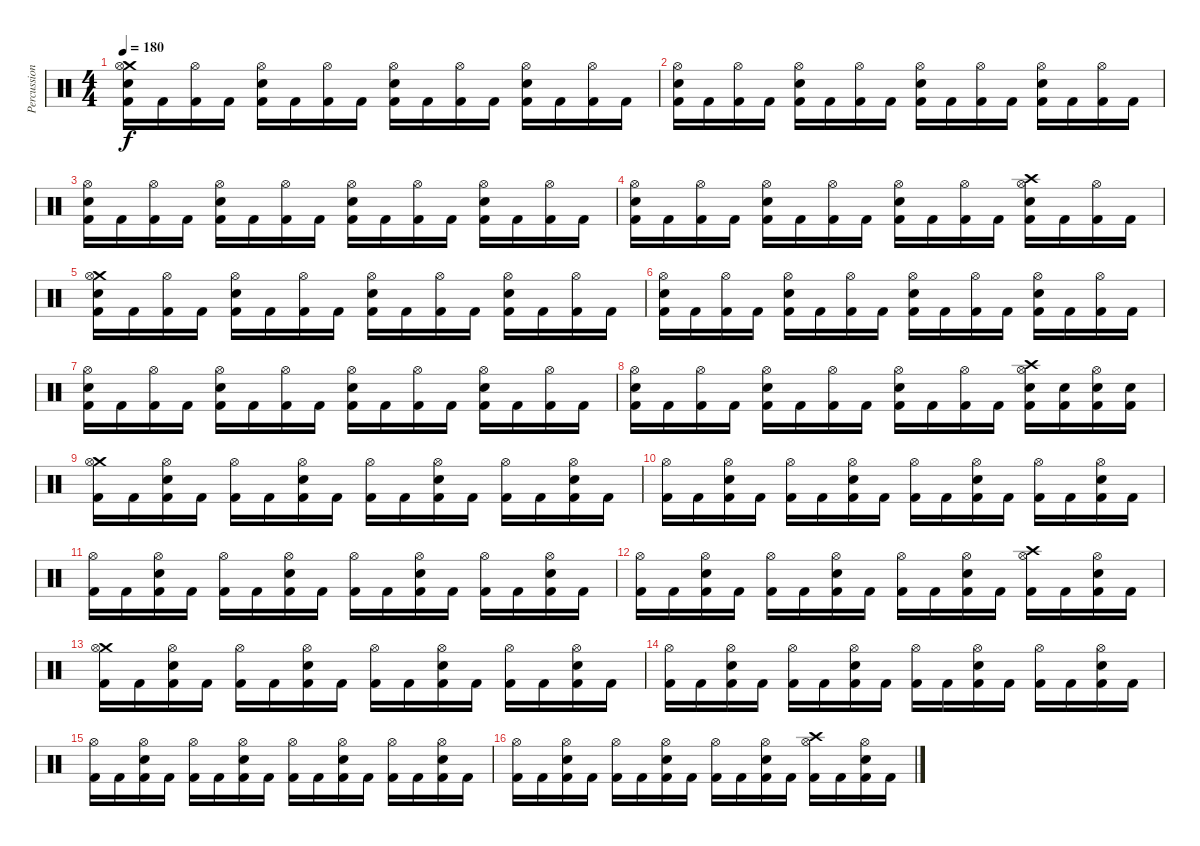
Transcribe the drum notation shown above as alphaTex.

\track ("Percussion" "Percussion") {instrument percussion}
\staff {score}
\articulation defaults
\ts (4 4)
\tempo 180
\clef neutral
\ks c
("Crash medium (hit)" "Hi-Hat (open)" "Snare (hit) 2" "Kick (hit) 2").16{dy f} "Kick (hit) 2".16 ("Hi-Hat (open)" "Kick (hit) 2").16 "Kick (hit) 2".16 ("Hi-Hat (open)" "Snare (hit) 2" "Kick (hit) 2").16 "Kick (hit) 2".16 ("Hi-Hat (open)" "Kick (hit) 2").16 "Kick (hit) 2".16 ("Hi-Hat (open)" "Snare (hit) 2" "Kick (hit) 2").16 "Kick (hit) 2".16 ("Hi-Hat (open)" "Kick (hit) 2").16 "Kick (hit) 2".16 ("Hi-Hat (open)" "Snare (hit) 2" "Kick (hit) 2").16 "Kick (hit) 2".16 ("Hi-Hat (open)" "Kick (hit) 2").16 "Kick (hit) 2".16 |
("Hi-Hat (open)" "Snare (hit) 2" "Kick (hit) 2").16 "Kick (hit) 2".16 ("Hi-Hat (open)" "Kick (hit) 2").16 "Kick (hit) 2".16 ("Hi-Hat (open)" "Snare (hit) 2" "Kick (hit) 2").16 "Kick (hit) 2".16 ("Hi-Hat (open)" "Kick (hit) 2").16 "Kick (hit) 2".16 ("Hi-Hat (open)" "Snare (hit) 2" "Kick (hit) 2").16 "Kick (hit) 2".16 ("Hi-Hat (open)" "Kick (hit) 2").16 "Kick (hit) 2".16 ("Hi-Hat (open)" "Snare (hit) 2" "Kick (hit) 2").16 "Kick (hit) 2".16 ("Hi-Hat (open)" "Kick (hit) 2").16 "Kick (hit) 2".16 |
("Hi-Hat (open)" "Snare (hit) 2" "Kick (hit) 2").16 "Kick (hit) 2".16 ("Hi-Hat (open)" "Kick (hit) 2").16 "Kick (hit) 2".16 ("Hi-Hat (open)" "Snare (hit) 2" "Kick (hit) 2").16 "Kick (hit) 2".16 ("Hi-Hat (open)" "Kick (hit) 2").16 "Kick (hit) 2".16 ("Hi-Hat (open)" "Snare (hit) 2" "Kick (hit) 2").16 "Kick (hit) 2".16 ("Hi-Hat (open)" "Kick (hit) 2").16 "Kick (hit) 2".16 ("Hi-Hat (open)" "Snare (hit) 2" "Kick (hit) 2").16 "Kick (hit) 2".16 ("Hi-Hat (open)" "Kick (hit) 2").16 "Kick (hit) 2".16 |
("Hi-Hat (open)" "Snare (hit) 2" "Kick (hit) 2").16 "Kick (hit) 2".16 ("Hi-Hat (open)" "Kick (hit) 2").16 "Kick (hit) 2".16 ("Hi-Hat (open)" "Snare (hit) 2" "Kick (hit) 2").16 "Kick (hit) 2".16 ("Hi-Hat (open)" "Kick (hit) 2").16 "Kick (hit) 2".16 ("Hi-Hat (open)" "Snare (hit) 2" "Kick (hit) 2").16 "Kick (hit) 2".16 ("Hi-Hat (open)" "Kick (hit) 2").16 "Kick (hit) 2".16 ("Crash high (hit)" "Hi-Hat (open)" "Snare (hit) 2" "Kick (hit) 2").16 "Kick (hit) 2".16 ("Hi-Hat (open)" "Kick (hit) 2").16 "Kick (hit) 2".16 |
("Crash medium (hit)" "Hi-Hat (open)" "Snare (hit) 2" "Kick (hit) 2").16 "Kick (hit) 2".16 ("Hi-Hat (open)" "Kick (hit) 2").16 "Kick (hit) 2".16 ("Hi-Hat (open)" "Snare (hit) 2" "Kick (hit) 2").16 "Kick (hit) 2".16 ("Hi-Hat (open)" "Kick (hit) 2").16 "Kick (hit) 2".16 ("Hi-Hat (open)" "Snare (hit) 2" "Kick (hit) 2").16 "Kick (hit) 2".16 ("Hi-Hat (open)" "Kick (hit) 2").16 "Kick (hit) 2".16 ("Hi-Hat (open)" "Snare (hit) 2" "Kick (hit) 2").16 "Kick (hit) 2".16 ("Hi-Hat (open)" "Kick (hit) 2").16 "Kick (hit) 2".16 |
("Hi-Hat (open)" "Snare (hit) 2" "Kick (hit) 2").16 "Kick (hit) 2".16 ("Hi-Hat (open)" "Kick (hit) 2").16 "Kick (hit) 2".16 ("Hi-Hat (open)" "Snare (hit) 2" "Kick (hit) 2").16 "Kick (hit) 2".16 ("Hi-Hat (open)" "Kick (hit) 2").16 "Kick (hit) 2".16 ("Hi-Hat (open)" "Snare (hit) 2" "Kick (hit) 2").16 "Kick (hit) 2".16 ("Hi-Hat (open)" "Kick (hit) 2").16 "Kick (hit) 2".16 ("Hi-Hat (open)" "Snare (hit) 2" "Kick (hit) 2").16 "Kick (hit) 2".16 ("Hi-Hat (open)" "Kick (hit) 2").16 "Kick (hit) 2".16 |
("Hi-Hat (open)" "Snare (hit) 2" "Kick (hit) 2").16 "Kick (hit) 2".16 ("Hi-Hat (open)" "Kick (hit) 2").16 "Kick (hit) 2".16 ("Hi-Hat (open)" "Snare (hit) 2" "Kick (hit) 2").16 "Kick (hit) 2".16 ("Hi-Hat (open)" "Kick (hit) 2").16 "Kick (hit) 2".16 ("Hi-Hat (open)" "Snare (hit) 2" "Kick (hit) 2").16 "Kick (hit) 2".16 ("Hi-Hat (open)" "Kick (hit) 2").16 "Kick (hit) 2".16 ("Hi-Hat (open)" "Snare (hit) 2" "Kick (hit) 2").16 "Kick (hit) 2".16 ("Hi-Hat (open)" "Kick (hit) 2").16 "Kick (hit) 2".16 |
("Hi-Hat (open)" "Snare (hit) 2" "Kick (hit) 2").16 "Kick (hit) 2".16 ("Hi-Hat (open)" "Kick (hit) 2").16 "Kick (hit) 2".16 ("Hi-Hat (open)" "Snare (hit) 2" "Kick (hit) 2").16 "Kick (hit) 2".16 ("Hi-Hat (open)" "Kick (hit) 2").16 "Kick (hit) 2".16 ("Hi-Hat (open)" "Snare (hit) 2" "Kick (hit) 2").16 "Kick (hit) 2".16 ("Hi-Hat (open)" "Kick (hit) 2").16 "Kick (hit) 2".16 ("Crash high (hit)" "Hi-Hat (open)" "Snare (hit) 2" "Kick (hit) 2").16 ("Snare (hit) 2" "Kick (hit) 2").16 ("Hi-Hat (open)" "Snare (hit) 2" "Kick (hit) 2").16 ("Snare (hit) 2" "Kick (hit) 2").16 |
("Crash medium (hit)" "Hi-Hat (open)" "Kick (hit) 2").16 "Kick (hit) 2".16 ("Hi-Hat (open)" "Snare (hit) 2" "Kick (hit) 2").16 "Kick (hit) 2".16 ("Hi-Hat (open)" "Kick (hit) 2").16 "Kick (hit) 2".16 ("Hi-Hat (open)" "Snare (hit) 2" "Kick (hit) 2").16 "Kick (hit) 2".16 ("Hi-Hat (open)" "Kick (hit) 2").16 "Kick (hit) 2".16 ("Hi-Hat (open)" "Snare (hit) 2" "Kick (hit) 2").16 "Kick (hit) 2".16 ("Hi-Hat (open)" "Kick (hit) 2").16 "Kick (hit) 2".16 ("Hi-Hat (open)" "Snare (hit) 2" "Kick (hit) 2").16 "Kick (hit) 2".16 |
("Hi-Hat (open)" "Kick (hit) 2").16 "Kick (hit) 2".16 ("Hi-Hat (open)" "Snare (hit) 2" "Kick (hit) 2").16 "Kick (hit) 2".16 ("Hi-Hat (open)" "Kick (hit) 2").16 "Kick (hit) 2".16 ("Hi-Hat (open)" "Snare (hit) 2" "Kick (hit) 2").16 "Kick (hit) 2".16 ("Hi-Hat (open)" "Kick (hit) 2").16 "Kick (hit) 2".16 ("Hi-Hat (open)" "Snare (hit) 2" "Kick (hit) 2").16 "Kick (hit) 2".16 ("Hi-Hat (open)" "Kick (hit) 2").16 "Kick (hit) 2".16 ("Hi-Hat (open)" "Snare (hit) 2" "Kick (hit) 2").16 "Kick (hit) 2".16 |
("Hi-Hat (open)" "Kick (hit) 2").16 "Kick (hit) 2".16 ("Hi-Hat (open)" "Snare (hit) 2" "Kick (hit) 2").16 "Kick (hit) 2".16 ("Hi-Hat (open)" "Kick (hit) 2").16 "Kick (hit) 2".16 ("Hi-Hat (open)" "Snare (hit) 2" "Kick (hit) 2").16 "Kick (hit) 2".16 ("Hi-Hat (open)" "Kick (hit) 2").16 "Kick (hit) 2".16 ("Hi-Hat (open)" "Snare (hit) 2" "Kick (hit) 2").16 "Kick (hit) 2".16 ("Hi-Hat (open)" "Kick (hit) 2").16 "Kick (hit) 2".16 ("Hi-Hat (open)" "Snare (hit) 2" "Kick (hit) 2").16 "Kick (hit) 2".16 |
("Hi-Hat (open)" "Kick (hit) 2").16 "Kick (hit) 2".16 ("Hi-Hat (open)" "Snare (hit) 2" "Kick (hit) 2").16 "Kick (hit) 2".16 ("Hi-Hat (open)" "Kick (hit) 2").16 "Kick (hit) 2".16 ("Hi-Hat (open)" "Snare (hit) 2" "Kick (hit) 2").16 "Kick (hit) 2".16 ("Hi-Hat (open)" "Kick (hit) 2").16 "Kick (hit) 2".16 ("Hi-Hat (open)" "Snare (hit) 2" "Kick (hit) 2").16 "Kick (hit) 2".16 ("Crash high (hit)" "Hi-Hat (open)" "Kick (hit) 2").16 "Kick (hit) 2".16 ("Hi-Hat (open)" "Snare (hit) 2" "Kick (hit) 2").16 "Kick (hit) 2".16 |
("Crash medium (hit)" "Hi-Hat (open)" "Kick (hit) 2").16 "Kick (hit) 2".16 ("Hi-Hat (open)" "Snare (hit) 2" "Kick (hit) 2").16 "Kick (hit) 2".16 ("Hi-Hat (open)" "Kick (hit) 2").16 "Kick (hit) 2".16 ("Hi-Hat (open)" "Snare (hit) 2" "Kick (hit) 2").16 "Kick (hit) 2".16 ("Hi-Hat (open)" "Kick (hit) 2").16 "Kick (hit) 2".16 ("Hi-Hat (open)" "Snare (hit) 2" "Kick (hit) 2").16 "Kick (hit) 2".16 ("Hi-Hat (open)" "Kick (hit) 2").16 "Kick (hit) 2".16 ("Hi-Hat (open)" "Snare (hit) 2" "Kick (hit) 2").16 "Kick (hit) 2".16 |
("Hi-Hat (open)" "Kick (hit) 2").16 "Kick (hit) 2".16 ("Hi-Hat (open)" "Snare (hit) 2" "Kick (hit) 2").16 "Kick (hit) 2".16 ("Hi-Hat (open)" "Kick (hit) 2").16 "Kick (hit) 2".16 ("Hi-Hat (open)" "Snare (hit) 2" "Kick (hit) 2").16 "Kick (hit) 2".16 ("Hi-Hat (open)" "Kick (hit) 2").16 "Kick (hit) 2".16 ("Hi-Hat (open)" "Snare (hit) 2" "Kick (hit) 2").16 "Kick (hit) 2".16 ("Hi-Hat (open)" "Kick (hit) 2").16 "Kick (hit) 2".16 ("Hi-Hat (open)" "Snare (hit) 2" "Kick (hit) 2").16 "Kick (hit) 2".16 |
("Hi-Hat (open)" "Kick (hit) 2").16 "Kick (hit) 2".16 ("Hi-Hat (open)" "Snare (hit) 2" "Kick (hit) 2").16 "Kick (hit) 2".16 ("Hi-Hat (open)" "Kick (hit) 2").16 "Kick (hit) 2".16 ("Hi-Hat (open)" "Snare (hit) 2" "Kick (hit) 2").16 "Kick (hit) 2".16 ("Hi-Hat (open)" "Kick (hit) 2").16 "Kick (hit) 2".16 ("Hi-Hat (open)" "Snare (hit) 2" "Kick (hit) 2").16 "Kick (hit) 2".16 ("Hi-Hat (open)" "Kick (hit) 2").16 "Kick (hit) 2".16 ("Hi-Hat (open)" "Snare (hit) 2" "Kick (hit) 2").16 "Kick (hit) 2".16 |
("Hi-Hat (open)" "Kick (hit) 2").16 "Kick (hit) 2".16 ("Hi-Hat (open)" "Snare (hit) 2" "Kick (hit) 2").16 "Kick (hit) 2".16 ("Hi-Hat (open)" "Kick (hit) 2").16 "Kick (hit) 2".16 ("Hi-Hat (open)" "Snare (hit) 2" "Kick (hit) 2").16 "Kick (hit) 2".16 ("Hi-Hat (open)" "Kick (hit) 2").16 "Kick (hit) 2".16 ("Hi-Hat (open)" "Snare (hit) 2" "Kick (hit) 2").16 "Kick (hit) 2".16 ("Crash high (hit)" "Hi-Hat (open)" "Kick (hit) 2").16 "Kick (hit) 2".16 ("Hi-Hat (open)" "Snare (hit) 2" "Kick (hit) 2").16 "Kick (hit) 2".16
